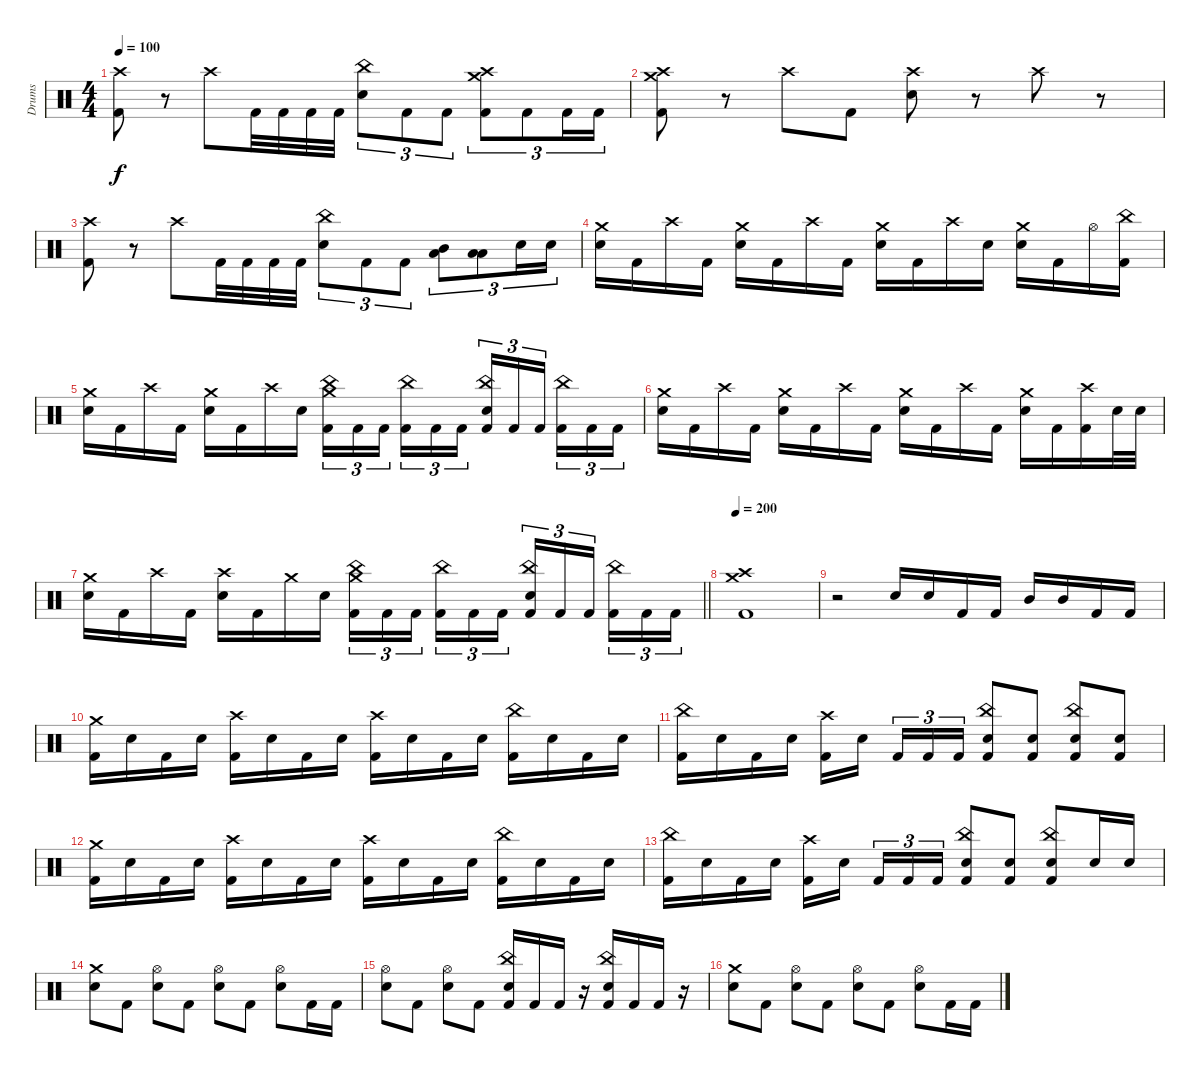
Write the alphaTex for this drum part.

\track ("Drums" "Drums") {instrument percussion}
\staff {score}
\articulation defaults
\ts (4 4)
\tempo 100
\clef neutral
\ks c
("Crash high (hit)" "Kick (hit) 2").8{dy f} r.8 "Crash high (hit)".8 "Kick (hit) 2".32 "Kick (hit) 2".32 "Kick (hit) 2".32 "Kick (hit) 2".32 ("China (hit)" "Electric Snare (hit)").8{tu (3 2)} "Kick (hit) 2".8{tu (3 2)} "Kick (hit) 2".8{tu (3 2)} ("Crash medium (hit)" "Crash high (hit)" "Kick (hit) 2").8{tu (3 2)} "Kick (hit) 2".8{tu (3 2)} "Kick (hit) 2".16{tu (3 2)} "Kick (hit) 2".16{tu (3 2)} |
("Crash medium (hit)" "Crash high (hit)" "Kick (hit) 2").8 r.8 "Crash high (hit)".8 "Kick (hit) 2".8 ("Crash high (hit)" "Electric Snare (hit)").8 r.8 "Crash high (hit)".8 r.8 |
("Crash high (hit)" "Kick (hit) 2").8 r.8 "Crash high (hit)".8 "Kick (hit) 2".32 "Kick (hit) 2".32 "Kick (hit) 2".32 "Kick (hit) 2".32 ("China (hit)" "Electric Snare (hit)").8{tu (3 2)} "Kick (hit) 2".8{tu (3 2)} "Kick (hit) 2".8{tu (3 2)} ("Low Tom (hit)" "Mid Tom (hit)").8{tu (3 2)} ("Low Tom (hit)" "Low Floor Tom (hit)").8{tu (3 2)} "Electric Snare (hit)".16{tu (3 2)} "Electric Snare (hit)".16{tu (3 2)} |
("Crash medium (hit)" "Electric Snare (hit)").16 "Kick (hit) 2".16 "Crash high (hit)".16 "Kick (hit) 2".16 ("Crash medium (hit)" "Electric Snare (hit)").16 "Kick (hit) 2".16 "Crash high (hit)".16 "Kick (hit) 2".16 ("Crash medium (hit)" "Electric Snare (hit)").16 "Kick (hit) 2".16 "Crash high (hit)".16 "Electric Snare (hit)".16 ("Crash medium (hit)" "Electric Snare (hit)").16 "Kick (hit) 2".16 "Hi-Hat (open)".16 ("China (hit)" "Kick (hit) 2").16 |
("Crash medium (hit)" "Electric Snare (hit)").16 "Kick (hit) 2".16 "Crash high (hit)".16 "Kick (hit) 2".16 ("Crash medium (hit)" "Electric Snare (hit)").16 "Kick (hit) 2".16 "Crash high (hit)".16 "Electric Snare (hit)".16 ("China (hit)" "Crash medium (hit)" "Kick (hit) 2").16{tu (3 2)} "Kick (hit) 2".16{tu (3 2)} "Kick (hit) 2".16{tu (3 2) beam splitsecondary} ("China (hit)" "Kick (hit) 2").16{tu (3 2)} "Kick (hit) 2".16{tu (3 2)} "Kick (hit) 2".16{tu (3 2)} ("China (hit)" "Electric Snare (hit)" "Kick (hit) 2").16{tu (3 2)} "Kick (hit) 2".16{tu (3 2)} "Kick (hit) 2".16{tu (3 2) beam splitsecondary} ("China (hit)" "Kick (hit) 2").16{tu (3 2)} "Kick (hit) 2".16{tu (3 2)} "Kick (hit) 2".16{tu (3 2)} |
("Crash medium (hit)" "Electric Snare (hit)").16 "Kick (hit) 2".16 "Crash high (hit)".16 "Kick (hit) 2".16 ("Crash medium (hit)" "Electric Snare (hit)").16 "Kick (hit) 2".16 "Crash high (hit)".16 "Kick (hit) 2".16 ("Crash medium (hit)" "Electric Snare (hit)").16 "Kick (hit) 2".16 "Crash high (hit)".16 "Kick (hit) 2".16 ("Crash medium (hit)" "Electric Snare (hit)").16 "Kick (hit) 2".16 ("Crash high (hit)" "Kick (hit) 2").16 "Electric Snare (hit)".32 "Electric Snare (hit)".32 |
\barLineRight lightlight
("Crash medium (hit)" "Electric Snare (hit)").16 "Kick (hit) 2".16 "Crash high (hit)".16 "Kick (hit) 2".16 ("Crash high (hit)" "Electric Snare (hit)").16 "Kick (hit) 2".16 "Crash medium (hit)".16 "Electric Snare (hit)".16 ("China (hit)" "Crash medium (hit)" "Kick (hit) 2").16{tu (3 2)} "Kick (hit) 2".16{tu (3 2)} "Kick (hit) 2".16{tu (3 2) beam splitsecondary} ("China (hit)" "Kick (hit) 2").16{tu (3 2)} "Kick (hit) 2".16{tu (3 2)} "Kick (hit) 2".16{tu (3 2)} ("China (hit)" "Electric Snare (hit)" "Kick (hit) 2").16{tu (3 2)} "Kick (hit) 2".16{tu (3 2)} "Kick (hit) 2".16{tu (3 2) beam splitsecondary} ("China (hit)" "Kick (hit) 2").16{tu (3 2)} "Kick (hit) 2".16{tu (3 2)} "Kick (hit) 2".16{tu (3 2)} |
\tempo 200
("Crash high (hit)" "Crash medium (hit)" "Kick (hit) 2").1 |
r.2 "Electric Snare (hit)".16 "Electric Snare (hit)".16 "Kick (hit) 2".16 "Kick (hit) 2".16 "Mid Tom (hit)".16 "Mid Tom (hit)".16 "Kick (hit) 2".16 "Kick (hit) 2".16 |
("Crash medium (hit)" "Kick (hit) 2").16 "Electric Snare (hit)".16 "Kick (hit) 2".16 "Electric Snare (hit)".16 ("Crash high (hit)" "Kick (hit) 2").16 "Electric Snare (hit)".16 "Kick (hit) 2".16 "Electric Snare (hit)".16 ("Crash high (hit)" "Kick (hit) 2").16 "Electric Snare (hit)".16 "Kick (hit) 2".16 "Electric Snare (hit)".16 ("China (hit)" "Kick (hit) 2").16 "Electric Snare (hit)".16 "Kick (hit) 2".16 "Electric Snare (hit)".16 |
("China (hit)" "Kick (hit) 2").16 "Electric Snare (hit)".16 "Kick (hit) 2".16 "Electric Snare (hit)".16 ("Crash high (hit)" "Kick (hit) 2").16 "Electric Snare (hit)".16{beam splitsecondary} "Kick (hit) 2".16{tu (3 2)} "Kick (hit) 2".16{tu (3 2)} "Kick (hit) 2".16{tu (3 2)} ("China (hit)" "Electric Snare (hit)" "Kick (hit) 2").8 ("Electric Snare (hit)" "Kick (hit) 2").8 ("China (hit)" "Electric Snare (hit)" "Kick (hit) 2").8 ("Electric Snare (hit)" "Kick (hit) 2").8 |
("Crash medium (hit)" "Kick (hit) 2").16 "Electric Snare (hit)".16 "Kick (hit) 2".16 "Electric Snare (hit)".16 ("Crash high (hit)" "Kick (hit) 2").16 "Electric Snare (hit)".16 "Kick (hit) 2".16 "Electric Snare (hit)".16 ("Crash high (hit)" "Kick (hit) 2").16 "Electric Snare (hit)".16 "Kick (hit) 2".16 "Electric Snare (hit)".16 ("China (hit)" "Kick (hit) 2").16 "Electric Snare (hit)".16 "Kick (hit) 2".16 "Electric Snare (hit)".16 |
("China (hit)" "Kick (hit) 2").16 "Electric Snare (hit)".16 "Kick (hit) 2".16 "Electric Snare (hit)".16 ("Crash high (hit)" "Kick (hit) 2").16 "Electric Snare (hit)".16{beam splitsecondary} "Kick (hit) 2".16{tu (3 2)} "Kick (hit) 2".16{tu (3 2)} "Kick (hit) 2".16{tu (3 2)} ("China (hit)" "Electric Snare (hit)" "Kick (hit) 2").8 ("Electric Snare (hit)" "Kick (hit) 2").8 ("China (hit)" "Electric Snare (hit)" "Kick (hit) 2").8 "Electric Snare (hit)".16 "Electric Snare (hit)".16 |
("Crash medium (hit)" "Electric Snare (hit)").8 "Kick (hit) 2".8 ("Hi-Hat (open)" "Electric Snare (hit)").8 "Kick (hit) 2".8 ("Hi-Hat (open)" "Electric Snare (hit)").8 "Kick (hit) 2".8 ("Hi-Hat (open)" "Electric Snare (hit)").8 "Kick (hit) 2".16 "Kick (hit) 2".16 |
("Hi-Hat (open)" "Electric Snare (hit)").8 "Kick (hit) 2".8 ("Hi-Hat (open)" "Electric Snare (hit)").8 "Kick (hit) 2".8 ("Electric Snare (hit)" "China (hit)" "Kick (hit) 2").16 "Kick (hit) 2".16 "Kick (hit) 2".16 r.16 ("Electric Snare (hit)" "China (hit)" "Kick (hit) 2").16 "Kick (hit) 2".16 "Kick (hit) 2".16 r.16 |
("Crash medium (hit)" "Electric Snare (hit)").8 "Kick (hit) 2".8 ("Hi-Hat (open)" "Electric Snare (hit)").8 "Kick (hit) 2".8 ("Hi-Hat (open)" "Electric Snare (hit)").8 "Kick (hit) 2".8 ("Hi-Hat (open)" "Electric Snare (hit)").8 "Kick (hit) 2".16 "Kick (hit) 2".16
